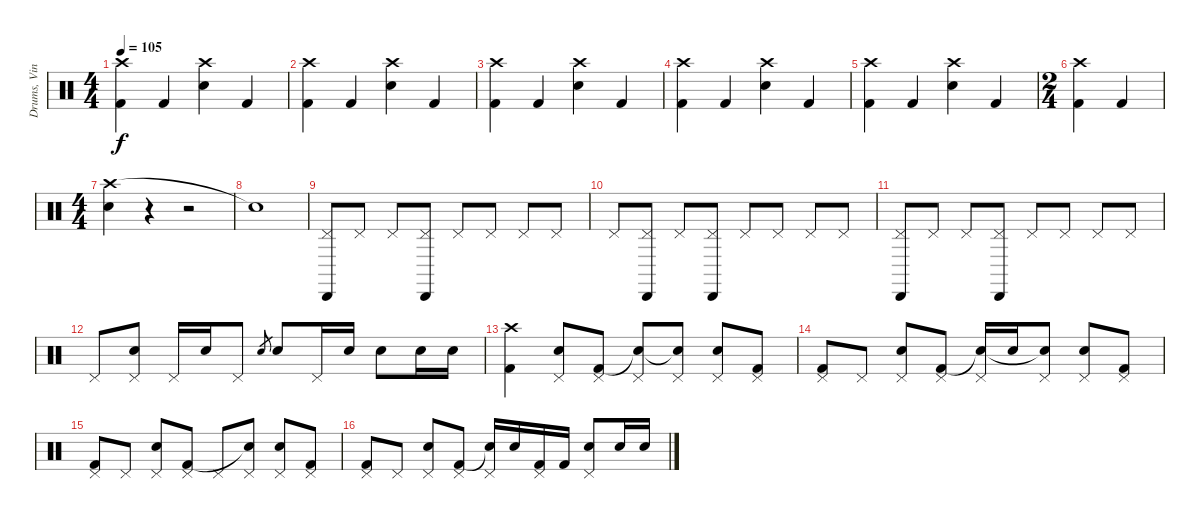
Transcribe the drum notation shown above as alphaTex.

\track ("Drums, Vinnie" "Drums, Vin") {instrument percussion}
\staff {score}
\articulation defaults
\ts (4 4)
\tempo 105
\clef neutral
\ks c
("Crash high (hit)" "Kick (hit) 2").4{dy f} "Kick (hit) 2".4 ("Crash high (hit)" "Electric Snare (hit)").4 "Kick (hit) 2".4 |
("Crash high (hit)" "Kick (hit) 2").4 "Kick (hit) 2".4 ("Crash high (hit)" "Electric Snare (hit)").4 "Kick (hit) 2".4 |
("Crash high (hit)" "Kick (hit) 2").4 "Kick (hit) 2".4 ("Crash high (hit)" "Electric Snare (hit)").4 "Kick (hit) 2".4 |
("Crash high (hit)" "Kick (hit) 2").4 "Kick (hit) 2".4 ("Crash high (hit)" "Electric Snare (hit)").4 "Kick (hit) 2".4 |
("Crash high (hit)" "Kick (hit) 2").4 "Kick (hit) 2".4 ("Crash high (hit)" "Electric Snare (hit)").4 "Kick (hit) 2".4 |
\ts (2 4)
("Crash high (hit)" "Kick (hit) 2").4 "Kick (hit) 2".4 |
\ts (4 4)
("Crash high (hit)" "Electric Snare (hit)").4 r.4 r.2 |
"Snare (hit)"{t}.1 |
("Pedal Hi-Hat (hit)" "Cabasa (hit)").8 "Pedal Hi-Hat (hit)".8 "Pedal Hi-Hat (hit)".8 ("Pedal Hi-Hat (hit)" "Cabasa (hit)").8 "Pedal Hi-Hat (hit)".8 "Pedal Hi-Hat (hit)".8 "Pedal Hi-Hat (hit)".8 "Pedal Hi-Hat (hit)".8 |
"Pedal Hi-Hat (hit)".8 ("Pedal Hi-Hat (hit)" "Cabasa (hit)").8 "Pedal Hi-Hat (hit)".8 ("Pedal Hi-Hat (hit)" "Cabasa (hit)").8 "Pedal Hi-Hat (hit)".8 "Pedal Hi-Hat (hit)".8 "Pedal Hi-Hat (hit)".8 "Pedal Hi-Hat (hit)".8 |
("Pedal Hi-Hat (hit)" "Cabasa (hit)").8 "Pedal Hi-Hat (hit)".8 "Pedal Hi-Hat (hit)".8 ("Pedal Hi-Hat (hit)" "Cabasa (hit)").8 "Pedal Hi-Hat (hit)".8 "Pedal Hi-Hat (hit)".8 "Pedal Hi-Hat (hit)".8 "Pedal Hi-Hat (hit)".8 |
"Pedal Hi-Hat (hit)".8 ("Pedal Hi-Hat (hit)" "Electric Snare (hit)").8 "Pedal Hi-Hat (hit)".16 "Electric Snare (hit)".16 "Pedal Hi-Hat (hit)".8 "Electric Snare (hit)".8{gr} "Electric Snare (hit)".8 "Pedal Hi-Hat (hit)".16 "Electric Snare (hit)".16 "Electric Snare (hit)".8 "Electric Snare (hit)".16 "Electric Snare (hit)".16 |
("Crash high (hit)" "Kick (hit) 2").4 ("Pedal Hi-Hat (hit)" "Electric Snare (hit)").8 ("Pedal Hi-Hat (hit)" "Kick (hit) 2").8 ("Pedal Hi-Hat (hit)" "Snare (hit)"{t}).8 ("Pedal Hi-Hat (hit)" "Snare (hit)"{t}).8 ("Pedal Hi-Hat (hit)" "Electric Snare (hit)").8 ("Pedal Hi-Hat (hit)" "Kick (hit) 2").8 |
("Pedal Hi-Hat (hit)" "Kick (hit) 2").8 "Pedal Hi-Hat (hit)".8 ("Pedal Hi-Hat (hit)" "Electric Snare (hit)").8 ("Pedal Hi-Hat (hit)" "Kick (hit) 2").8 ("Pedal Hi-Hat (hit)" "Snare (hit)"{t}).16 "Electric Snare (hit)".16 ("Pedal Hi-Hat (hit)" "Snare (hit)"{t}).8 ("Pedal Hi-Hat (hit)" "Electric Snare (hit)").8 ("Pedal Hi-Hat (hit)" "Kick (hit) 2").8 |
("Pedal Hi-Hat (hit)" "Kick (hit) 2").8 "Pedal Hi-Hat (hit)".8 ("Pedal Hi-Hat (hit)" "Electric Snare (hit)").8 ("Pedal Hi-Hat (hit)" "Kick (hit) 2").8 "Pedal Hi-Hat (hit)".8 ("Pedal Hi-Hat (hit)" "Snare (hit)"{t}).8 ("Pedal Hi-Hat (hit)" "Electric Snare (hit)").8 ("Pedal Hi-Hat (hit)" "Kick (hit) 2").8 |
("Pedal Hi-Hat (hit)" "Kick (hit) 2").8 "Pedal Hi-Hat (hit)".8 ("Pedal Hi-Hat (hit)" "Electric Snare (hit)").8 ("Pedal Hi-Hat (hit)" "Kick (hit) 2").8 ("Pedal Hi-Hat (hit)" "Snare (hit)"{t}).16 "Electric Snare (hit)".16 ("Pedal Hi-Hat (hit)" "Kick (hit) 2").16 "Kick (hit) 2".16 ("Pedal Hi-Hat (hit)" "Electric Snare (hit)").8 "Electric Snare (hit)".16 "Electric Snare (hit)".16
